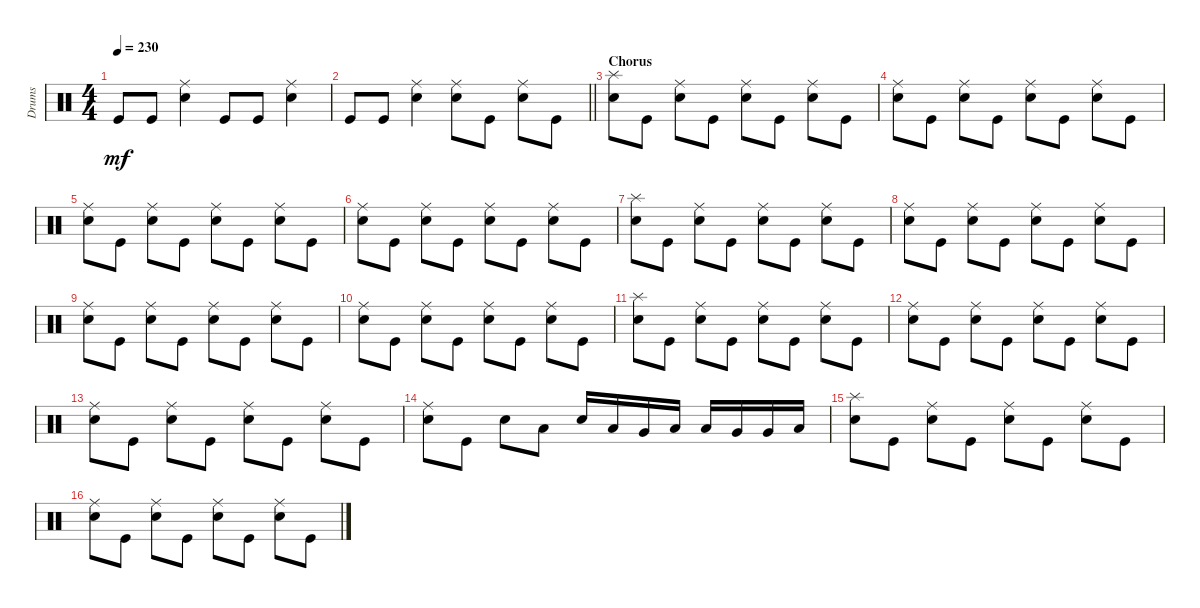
\track ("Drums" "Drums") {instrument percussion}
\staff {score}
\articulation defaults
\ts (4 4)
\tempo 230
\clef neutral
\ks c "Kick (hit)".8{dy mf} "Kick (hit)".8
("Snare (hit) 2" "Ride (middle)").4 "Kick (hit)".8 "Kick (hit)".8 ("Snare (hit) 2" "Ride (middle)").4 |
\barLineRight lightlight "Kick (hit)".8 "Kick (hit)".8
("Snare (hit) 2" "Ride (middle)").4 ("Snare (hit) 2" "Ride (middle)").8 "Kick (hit)".8 ("Snare (hit) 2" "Ride (middle)").8 "Kick (hit)".8 |
\section ("" "Chorus")
("Snare (hit) 2" "Splash (hit)").8 "Kick (hit)".8 ("Snare (hit) 2" "Ride (middle)").8 "Kick (hit)".8 ("Snare (hit) 2" "Ride (middle)").8 "Kick (hit)".8 ("Snare (hit) 2" "Ride (middle)").8 "Kick (hit)".8 |
("Snare (hit) 2" "Ride (middle)").8 "Kick (hit)".8 ("Snare (hit) 2" "Ride (middle)").8 "Kick (hit)".8 ("Snare (hit) 2" "Ride (middle)").8 "Kick (hit)".8 ("Snare (hit) 2" "Ride (middle)").8 "Kick (hit)".8 |
("Snare (hit) 2" "Ride (middle)").8 "Kick (hit)".8 ("Snare (hit) 2" "Ride (middle)").8 "Kick (hit)".8 ("Snare (hit) 2" "Ride (middle)").8 "Kick (hit)".8 ("Snare (hit) 2" "Ride (middle)").8 "Kick (hit)".8 |
("Snare (hit) 2" "Ride (middle)").8 "Kick (hit)".8 ("Snare (hit) 2" "Ride (middle)").8 "Kick (hit)".8 ("Snare (hit) 2" "Ride (middle)").8 "Kick (hit)".8 ("Snare (hit) 2" "Ride (middle)").8 "Kick (hit)".8 |
("Snare (hit) 2" "Splash (hit)").8 "Kick (hit)".8 ("Snare (hit) 2" "Ride (middle)").8 "Kick (hit)".8 ("Snare (hit) 2" "Ride (middle)").8 "Kick (hit)".8 ("Snare (hit) 2" "Ride (middle)").8 "Kick (hit)".8 |
("Snare (hit) 2" "Ride (middle)").8 "Kick (hit)".8 ("Snare (hit) 2" "Ride (middle)").8 "Kick (hit)".8 ("Snare (hit) 2" "Ride (middle)").8 "Kick (hit)".8 ("Snare (hit) 2" "Ride (middle)").8 "Kick (hit)".8 |
("Snare (hit) 2" "Ride (middle)").8 "Kick (hit)".8 ("Snare (hit) 2" "Ride (middle)").8 "Kick (hit)".8 ("Snare (hit) 2" "Ride (middle)").8 "Kick (hit)".8 ("Snare (hit) 2" "Ride (middle)").8 "Kick (hit)".8 |
("Snare (hit) 2" "Ride (middle)").8 "Kick (hit)".8 ("Snare (hit) 2" "Ride (middle)").8 "Kick (hit)".8 ("Snare (hit) 2" "Ride (middle)").8 "Kick (hit)".8 ("Snare (hit) 2" "Ride (middle)").8 "Kick (hit)".8 |
("Snare (hit) 2" "Splash (hit)").8 "Kick (hit)".8 ("Snare (hit) 2" "Ride (middle)").8 "Kick (hit)".8 ("Snare (hit) 2" "Ride (middle)").8 "Kick (hit)".8 ("Snare (hit) 2" "Ride (middle)").8 "Kick (hit)".8 |
("Snare (hit) 2" "Ride (middle)").8 "Kick (hit)".8 ("Snare (hit) 2" "Ride (middle)").8 "Kick (hit)".8 ("Snare (hit) 2" "Ride (middle)").8 "Kick (hit)".8 ("Snare (hit) 2" "Ride (middle)").8 "Kick (hit)".8 |
("Snare (hit) 2" "Ride (middle)").8 "Kick (hit)".8 ("Snare (hit) 2" "Ride (middle)").8 "Kick (hit)".8 ("Snare (hit) 2" "Ride (middle)").8 "Kick (hit)".8 ("Snare (hit) 2" "Ride (middle)").8 "Kick (hit)".8 |
("Snare (hit) 2" "Ride (middle)").8 "Kick (hit)".8 "Snare (hit) 2".8 "Low Tom (hit)".8 "Snare (hit) 2".16 "Low Tom (hit)".16 "Very Low Tom (hit)".16 "Low Floor Tom (hit)".16 "Low Tom (hit)".16 "Very Low Tom (hit)".16 "Very Low Tom (hit)".16 "Low Floor Tom (hit)".16 |
("Snare (hit) 2" "Splash (hit)").8 "Kick (hit)".8 ("Snare (hit) 2" "Ride (middle)").8 "Kick (hit)".8 ("Snare (hit) 2" "Ride (middle)").8 "Kick (hit)".8 ("Snare (hit) 2" "Ride (middle)").8 "Kick (hit)".8 |
("Snare (hit) 2" "Ride (middle)").8 "Kick (hit)".8 ("Snare (hit) 2" "Ride (middle)").8 "Kick (hit)".8 ("Snare (hit) 2" "Ride (middle)").8 "Kick (hit)".8 ("Snare (hit) 2" "Ride (middle)").8 "Kick (hit)".8
